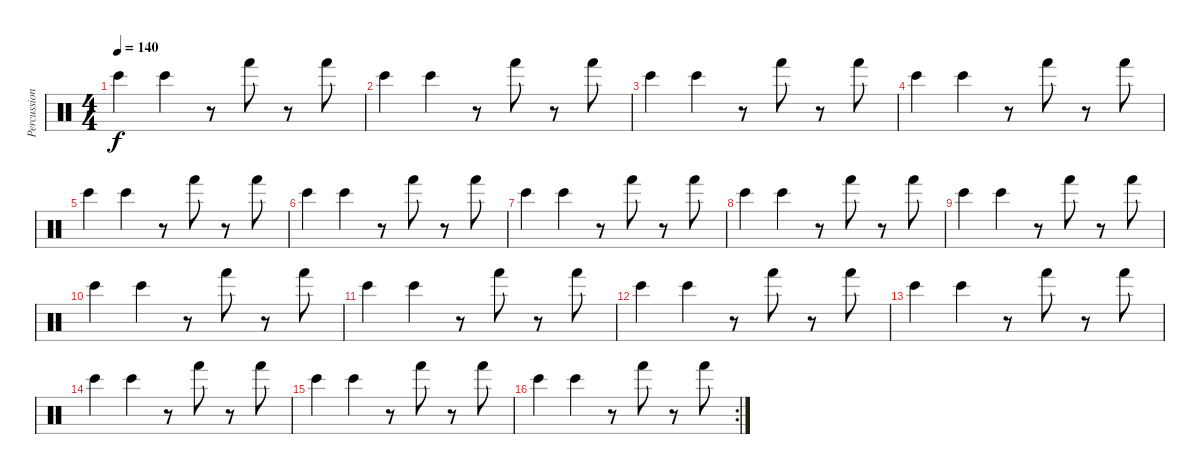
\track ("Percussions" "Percussion") {instrument percussion}
\staff {score}
\articulation defaults
\ts (4 4)
\tempo 140
\clef neutral
\ks c "Bongo High (hit)".4{dy f} "Bongo High (hit)".4
r.8 "Hand (hit)".8 r.8 "Hand (hit)".8 |
"Bongo High (hit)".4 "Bongo High (hit)".4 r.8 "Hand (hit)".8 r.8 "Hand (hit)".8 |
"Bongo High (hit)".4 "Bongo High (hit)".4 r.8 "Hand (hit)".8 r.8 "Hand (hit)".8 |
"Bongo High (hit)".4 "Bongo High (hit)".4 r.8 "Hand (hit)".8 r.8 "Hand (hit)".8 |
"Bongo High (hit)".4 "Bongo High (hit)".4 r.8 "Hand (hit)".8 r.8 "Hand (hit)".8 |
"Bongo High (hit)".4 "Bongo High (hit)".4 r.8 "Hand (hit)".8 r.8 "Hand (hit)".8 |
"Bongo High (hit)".4 "Bongo High (hit)".4 r.8 "Hand (hit)".8 r.8 "Hand (hit)".8 |
"Bongo High (hit)".4 "Bongo High (hit)".4 r.8 "Hand (hit)".8 r.8 "Hand (hit)".8 |
"Bongo High (hit)".4 "Bongo High (hit)".4 r.8 "Hand (hit)".8 r.8 "Hand (hit)".8 |
"Bongo High (hit)".4 "Bongo High (hit)".4 r.8 "Hand (hit)".8 r.8 "Hand (hit)".8 |
"Bongo High (hit)".4 "Bongo High (hit)".4 r.8 "Hand (hit)".8 r.8 "Hand (hit)".8 |
"Bongo High (hit)".4 "Bongo High (hit)".4 r.8 "Hand (hit)".8 r.8 "Hand (hit)".8 |
"Bongo High (hit)".4 "Bongo High (hit)".4 r.8 "Hand (hit)".8 r.8 "Hand (hit)".8 |
"Bongo High (hit)".4 "Bongo High (hit)".4 r.8 "Hand (hit)".8 r.8 "Hand (hit)".8 |
"Bongo High (hit)".4 "Bongo High (hit)".4 r.8 "Hand (hit)".8 r.8 "Hand (hit)".8 |
\rc 2 "Bongo High (hit)".4 "Bongo High (hit)".4
r.8 "Hand (hit)".8 r.8 "Hand (hit)".8
